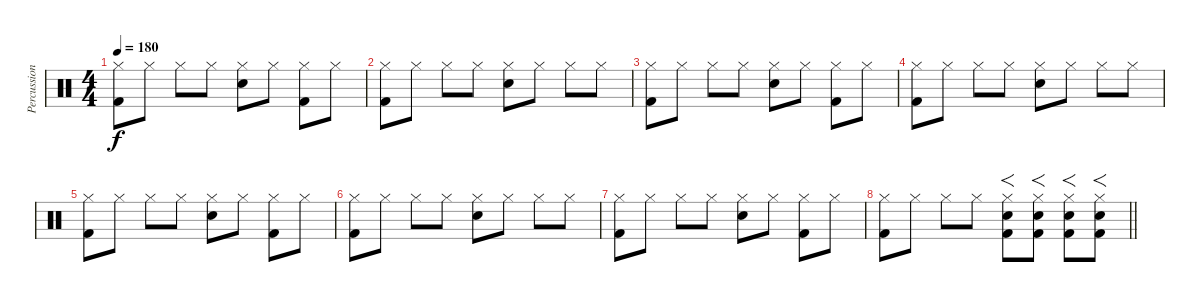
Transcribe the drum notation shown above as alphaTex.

\track ("Percussion" "Percussion") {instrument percussion}
\staff {score}
\articulation defaults
\ts (4 4)
\tempo 180
\clef neutral
\ks c
("Hi-Hat (closed)" "Kick (hit) 2").8{dy f} "Hi-Hat (closed)".8 "Hi-Hat (closed)".8 "Hi-Hat (closed)".8 ("Hi-Hat (closed)" "Hand Clap (hit)").8 "Hi-Hat (closed)".8 ("Hi-Hat (closed)" "Kick (hit) 2").8 "Hi-Hat (closed)".8 |
("Hi-Hat (closed)" "Kick (hit) 2").8 "Hi-Hat (closed)".8 "Hi-Hat (closed)".8 "Hi-Hat (closed)".8 ("Hi-Hat (closed)" "Hand Clap (hit)").8 "Hi-Hat (closed)".8 "Hi-Hat (closed)".8 "Hi-Hat (closed)".8 |
("Hi-Hat (closed)" "Kick (hit) 2").8 "Hi-Hat (closed)".8 "Hi-Hat (closed)".8 "Hi-Hat (closed)".8 ("Hi-Hat (closed)" "Hand Clap (hit)").8 "Hi-Hat (closed)".8 ("Hi-Hat (closed)" "Kick (hit) 2").8 "Hi-Hat (closed)".8 |
("Hi-Hat (closed)" "Kick (hit) 2").8 "Hi-Hat (closed)".8 "Hi-Hat (closed)".8 "Hi-Hat (closed)".8 ("Hi-Hat (closed)" "Hand Clap (hit)").8 "Hi-Hat (closed)".8 "Hi-Hat (closed)".8 "Hi-Hat (closed)".8 |
("Hi-Hat (closed)" "Kick (hit) 2").8 "Hi-Hat (closed)".8 "Hi-Hat (closed)".8 "Hi-Hat (closed)".8 ("Hi-Hat (closed)" "Hand Clap (hit)").8 "Hi-Hat (closed)".8 ("Hi-Hat (closed)" "Kick (hit) 2").8 "Hi-Hat (closed)".8 |
("Hi-Hat (closed)" "Kick (hit) 2").8 "Hi-Hat (closed)".8 "Hi-Hat (closed)".8 "Hi-Hat (closed)".8 ("Hi-Hat (closed)" "Hand Clap (hit)").8 "Hi-Hat (closed)".8 "Hi-Hat (closed)".8 "Hi-Hat (closed)".8 |
("Hi-Hat (closed)" "Kick (hit) 2").8 "Hi-Hat (closed)".8 "Hi-Hat (closed)".8 "Hi-Hat (closed)".8 ("Hi-Hat (closed)" "Hand Clap (hit)").8 "Hi-Hat (closed)".8 ("Hi-Hat (closed)" "Kick (hit) 2").8 "Hi-Hat (closed)".8 |
\barLineRight lightlight
("Hi-Hat (closed)" "Kick (hit) 2").8 "Hi-Hat (closed)".8 "Hi-Hat (closed)".8 "Hi-Hat (closed)".8 ("Hi-Hat (closed)" "Electric Snare (hit)" "Kick (hit) 2").8{f} ("Hi-Hat (closed)" "Electric Snare (hit)" "Kick (hit) 2").8{f} ("Hi-Hat (closed)" "Electric Snare (hit)" "Kick (hit) 2").8{f} ("Hi-Hat (closed)" "Electric Snare (hit)" "Kick (hit) 2").8{f}
